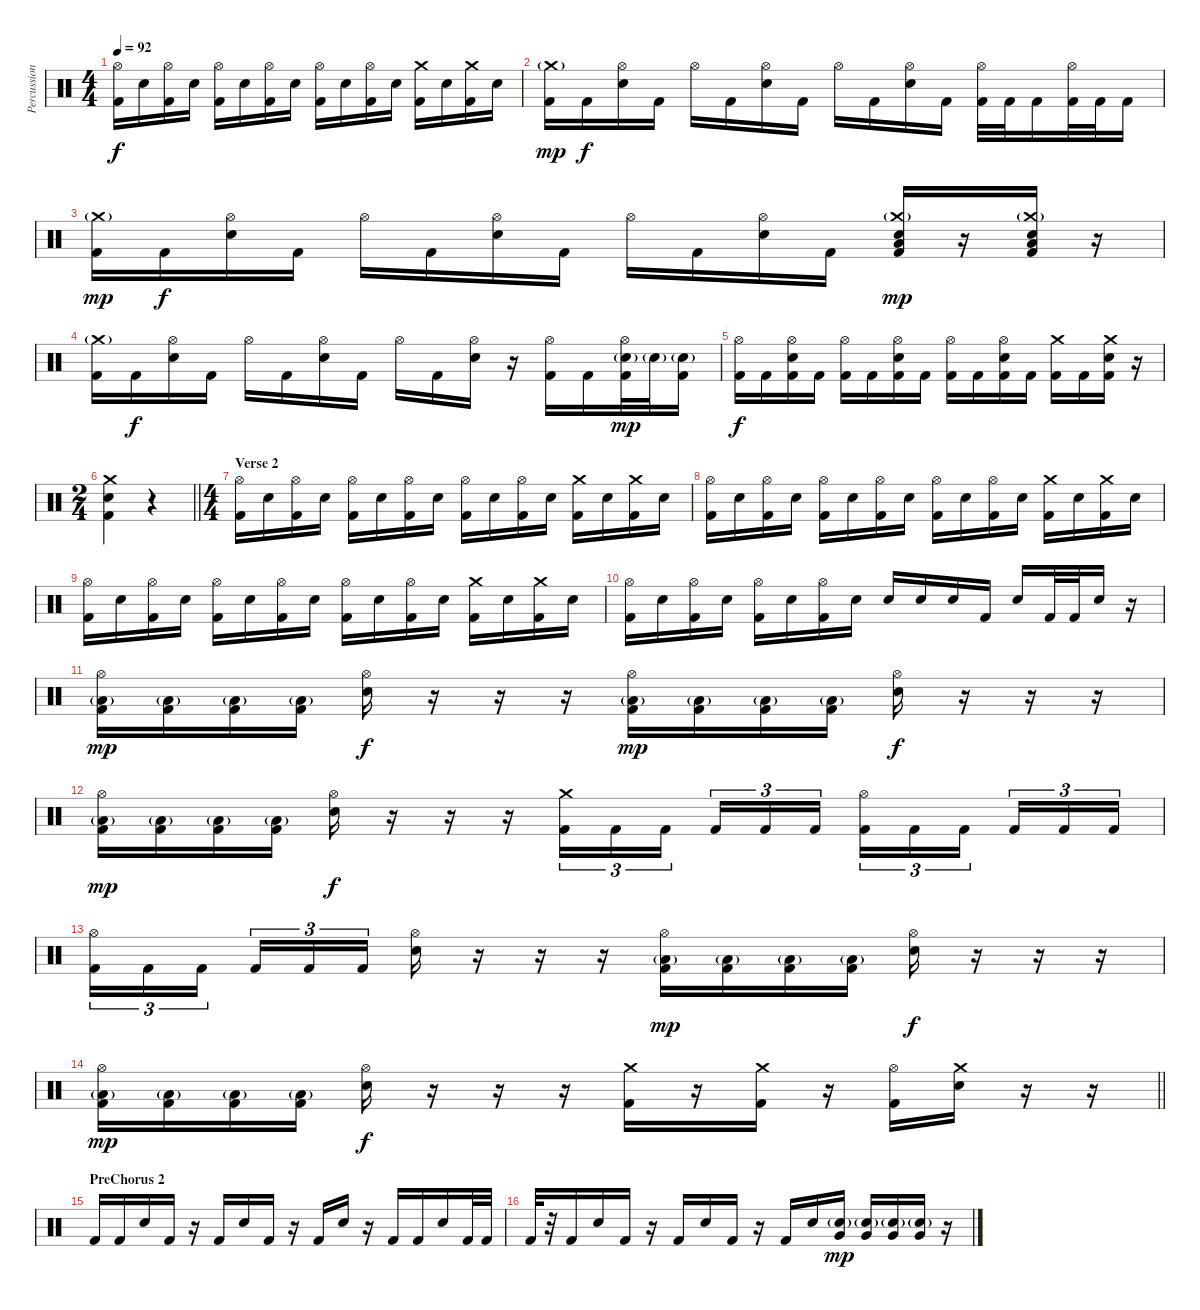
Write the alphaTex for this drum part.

\track ("Percussion" "Percussion") {instrument percussion}
\staff {score}
\articulation defaults
\ts (4 4)
\tempo 92
\clef neutral
\ks c
("Hi-Hat (open)" "Kick (hit) 2").16{dy f} "Electric Snare (hit)".16 ("Hi-Hat (open)" "Kick (hit) 2").16 "Electric Snare (hit)".16 ("Hi-Hat (open)" "Kick (hit) 2").16 "Electric Snare (hit)".16 ("Hi-Hat (open)" "Kick (hit) 2").16 "Electric Snare (hit)".16 ("Hi-Hat (open)" "Kick (hit) 2").16 "Electric Snare (hit)".16 ("Hi-Hat (open)" "Kick (hit) 2").16 "Electric Snare (hit)".16 ("Crash medium (hit)" "Kick (hit) 2").16 "Electric Snare (hit)".16 ("Crash medium (hit)" "Kick (hit) 2").16 "Electric Snare (hit)".16 |
("Crash medium (hit)"{g} "Kick (hit) 2").16{dy mp} "Kick (hit) 2".16{dy f} ("Hi-Hat (open)" "Electric Snare (hit)").16 "Kick (hit) 2".16 "Hi-Hat (open)".16 "Kick (hit) 2".16 ("Hi-Hat (open)" "Electric Snare (hit)").16 "Kick (hit) 2".16 "Hi-Hat (open)".16 "Kick (hit) 2".16 ("Hi-Hat (open)" "Electric Snare (hit)").16 "Kick (hit) 2".16 ("Hi-Hat (open)" "Kick (hit) 2").32 "Kick (hit) 2".32 "Kick (hit) 2".16 ("Hi-Hat (open)" "Kick (hit) 2").32 "Kick (hit) 2".32 "Kick (hit) 2".16 |
("Crash medium (hit)"{g} "Kick (hit) 2").16{dy mp} "Kick (hit) 2".16{dy f} ("Hi-Hat (open)" "Electric Snare (hit)").16 "Kick (hit) 2".16 "Hi-Hat (open)".16 "Kick (hit) 2".16 ("Hi-Hat (open)" "Electric Snare (hit)").16 "Kick (hit) 2".16 "Hi-Hat (open)".16 "Kick (hit) 2".16 ("Hi-Hat (open)" "Electric Snare (hit)").16 "Kick (hit) 2".16 ("Crash medium (hit)"{g} "Low Floor Tom (hit)" "Electric Snare (hit)" "Kick (hit) 2").16{dy mp} r.16 ("Crash medium (hit)"{g} "Low Floor Tom (hit)" "Electric Snare (hit)" "Kick (hit) 2").16 r.16 |
("Crash medium (hit)"{g} "Kick (hit) 2").16 "Kick (hit) 2".16{dy f} ("Hi-Hat (open)" "Electric Snare (hit)").16 "Kick (hit) 2".16 "Hi-Hat (open)".16 "Kick (hit) 2".16 ("Hi-Hat (open)" "Electric Snare (hit)").16 "Kick (hit) 2".16 "Hi-Hat (open)".16 "Kick (hit) 2".16 ("Hi-Hat (open)" "Electric Snare (hit)").16 r.16 ("Hi-Hat (open)" "Kick (hit) 2").16 "Kick (hit) 2".16 ("Hi-Hat (open)" "Electric Snare (hit)"{g} "Kick (hit) 2").32{dy mp} "Electric Snare (hit)"{g}.32 ("Electric Snare (hit)"{g} "Kick (hit) 2").16 |
("Hi-Hat (open)" "Kick (hit) 2").16{dy f} "Kick (hit) 2".16 ("Hi-Hat (open)" "Electric Snare (hit)" "Kick (hit) 2").16 "Kick (hit) 2".16 ("Hi-Hat (open)" "Kick (hit) 2").16 "Kick (hit) 2".16 ("Hi-Hat (open)" "Electric Snare (hit)" "Kick (hit) 2").16 "Kick (hit) 2".16 ("Hi-Hat (open)" "Kick (hit) 2").16 "Kick (hit) 2".16 ("Hi-Hat (open)" "Electric Snare (hit)" "Kick (hit) 2").16 "Kick (hit) 2".16 ("Crash medium (hit)" "Kick (hit) 2").16 "Kick (hit) 2".16 ("Crash medium (hit)" "Electric Snare (hit)" "Kick (hit) 2").16 r.16 |
\ts (2 4)
\barLineRight lightlight
("Crash medium (hit)" "Electric Snare (hit)" "Kick (hit) 2").4 r.4 |
\ts (4 4)
\section ("" "Verse 2")
("Hi-Hat (open)" "Kick (hit) 2").16 "Electric Snare (hit)".16 ("Hi-Hat (open)" "Kick (hit) 2").16 "Electric Snare (hit)".16 ("Hi-Hat (open)" "Kick (hit) 2").16 "Electric Snare (hit)".16 ("Hi-Hat (open)" "Kick (hit) 2").16 "Electric Snare (hit)".16 ("Hi-Hat (open)" "Kick (hit) 2").16 "Electric Snare (hit)".16 ("Hi-Hat (open)" "Kick (hit) 2").16 "Electric Snare (hit)".16 ("Crash medium (hit)" "Kick (hit) 2").16 "Electric Snare (hit)".16 ("Crash medium (hit)" "Kick (hit) 2").16 "Electric Snare (hit)".16 |
("Hi-Hat (open)" "Kick (hit) 2").16 "Electric Snare (hit)".16 ("Hi-Hat (open)" "Kick (hit) 2").16 "Electric Snare (hit)".16 ("Hi-Hat (open)" "Kick (hit) 2").16 "Electric Snare (hit)".16 ("Hi-Hat (open)" "Kick (hit) 2").16 "Electric Snare (hit)".16 ("Hi-Hat (open)" "Kick (hit) 2").16 "Electric Snare (hit)".16 ("Hi-Hat (open)" "Kick (hit) 2").16 "Electric Snare (hit)".16 ("Crash medium (hit)" "Kick (hit) 2").16 "Electric Snare (hit)".16 ("Crash medium (hit)" "Kick (hit) 2").16 "Electric Snare (hit)".16 |
("Hi-Hat (open)" "Kick (hit) 2").16 "Electric Snare (hit)".16 ("Hi-Hat (open)" "Kick (hit) 2").16 "Electric Snare (hit)".16 ("Hi-Hat (open)" "Kick (hit) 2").16 "Electric Snare (hit)".16 ("Hi-Hat (open)" "Kick (hit) 2").16 "Electric Snare (hit)".16 ("Hi-Hat (open)" "Kick (hit) 2").16 "Electric Snare (hit)".16 ("Hi-Hat (open)" "Kick (hit) 2").16 "Electric Snare (hit)".16 ("Crash medium (hit)" "Kick (hit) 2").16 "Electric Snare (hit)".16 ("Crash medium (hit)" "Kick (hit) 2").16 "Electric Snare (hit)".16 |
("Hi-Hat (open)" "Kick (hit) 2").16 "Electric Snare (hit)".16 ("Hi-Hat (open)" "Kick (hit) 2").16 "Electric Snare (hit)".16 ("Hi-Hat (open)" "Kick (hit) 2").16 "Electric Snare (hit)".16 ("Hi-Hat (open)" "Kick (hit) 2").16 "Electric Snare (hit)".16 "Electric Snare (hit)".16 "Electric Snare (hit)".16 "Electric Snare (hit)".16 "Kick (hit) 2".16 "Electric Snare (hit)".16 "Kick (hit) 2".32 "Kick (hit) 2".32 "Electric Snare (hit)".16 r.16 |
("Hi-Hat (open)" "Low Floor Tom (hit)"{g} "Kick (hit) 2").16{dy mp} ("Low Floor Tom (hit)"{g} "Kick (hit) 2").16 ("Low Floor Tom (hit)"{g} "Kick (hit) 2").16 ("Low Floor Tom (hit)"{g} "Kick (hit) 2").16 ("Hi-Hat (open)" "Electric Snare (hit)").16{dy f} r.16 r.16 r.16 ("Hi-Hat (open)" "Low Floor Tom (hit)"{g} "Kick (hit) 2").16{dy mp} ("Low Floor Tom (hit)"{g} "Kick (hit) 2").16 ("Low Floor Tom (hit)"{g} "Kick (hit) 2").16 ("Low Floor Tom (hit)"{g} "Kick (hit) 2").16 ("Hi-Hat (open)" "Electric Snare (hit)").16{dy f} r.16 r.16 r.16 |
("Hi-Hat (open)" "Low Floor Tom (hit)"{g} "Kick (hit) 2").16{dy mp} ("Low Floor Tom (hit)"{g} "Kick (hit) 2").16 ("Low Floor Tom (hit)"{g} "Kick (hit) 2").16 ("Low Floor Tom (hit)"{g} "Kick (hit) 2").16 ("Hi-Hat (open)" "Electric Snare (hit)").16{dy f} r.16 r.16 r.16 ("Crash medium (hit)" "Kick (hit) 2").16{tu (3 2)} "Kick (hit) 2".16{tu (3 2)} "Kick (hit) 2".16{tu (3 2) beam splitsecondary} "Kick (hit) 2".16{tu (3 2)} "Kick (hit) 2".16{tu (3 2)} "Kick (hit) 2".16{tu (3 2)} ("Hi-Hat (open)" "Kick (hit) 2").16{tu (3 2)} "Kick (hit) 2".16{tu (3 2)} "Kick (hit) 2".16{tu (3 2) beam splitsecondary} "Kick (hit) 2".16{tu (3 2)} "Kick (hit) 2".16{tu (3 2)} "Kick (hit) 2".16{tu (3 2)} |
("Hi-Hat (open)" "Kick (hit) 2").16{tu (3 2)} "Kick (hit) 2".16{tu (3 2)} "Kick (hit) 2".16{tu (3 2) beam splitsecondary} "Kick (hit) 2".16{tu (3 2)} "Kick (hit) 2".16{tu (3 2)} "Kick (hit) 2".16{tu (3 2)} ("Hi-Hat (open)" "Electric Snare (hit)").16 r.16 r.16 r.16 ("Hi-Hat (open)" "Low Floor Tom (hit)"{g} "Kick (hit) 2").16{dy mp} ("Low Floor Tom (hit)"{g} "Kick (hit) 2").16 ("Low Floor Tom (hit)"{g} "Kick (hit) 2").16 ("Low Floor Tom (hit)"{g} "Kick (hit) 2").16 ("Hi-Hat (open)" "Electric Snare (hit)").16{dy f} r.16 r.16 r.16 |
\barLineRight lightlight
("Hi-Hat (open)" "Low Floor Tom (hit)"{g} "Kick (hit) 2").16{dy mp} ("Low Floor Tom (hit)"{g} "Kick (hit) 2").16 ("Low Floor Tom (hit)"{g} "Kick (hit) 2").16 ("Low Floor Tom (hit)"{g} "Kick (hit) 2").16 ("Hi-Hat (open)" "Electric Snare (hit)").16{dy f} r.16 r.16 r.16 ("Crash medium (hit)" "Kick (hit) 2").16 r.16 ("Crash medium (hit)" "Kick (hit) 2").16 r.16 ("Hi-Hat (open)" "Kick (hit) 2").16 ("Crash medium (hit)" "Electric Snare (hit)").16 r.16 r.16 |
\section ("" "PreChorus 2")
"Kick (hit) 2".16 "Kick (hit) 2".16 "Electric Snare (hit)".16 "Kick (hit) 2".16 r.16 "Kick (hit) 2".16 "Electric Snare (hit)".16 "Kick (hit) 2".16 r.16 "Kick (hit) 2".16 "Electric Snare (hit)".16 r.16 "Kick (hit) 2".16 "Kick (hit) 2".16 "Electric Snare (hit)".16 "Kick (hit) 2".32 "Kick (hit) 2".32 |
"Kick (hit) 2".32 r.32 "Kick (hit) 2".16 "Electric Snare (hit)".16 "Kick (hit) 2".16 r.16 "Kick (hit) 2".16 "Electric Snare (hit)".16 "Kick (hit) 2".16 r.16 "Kick (hit) 2".16 "Electric Snare (hit)".16 ("Very Low Tom (hit)" "Electric Snare (hit)"{g}).16{dy mp} ("Very Low Tom (hit)" "Electric Snare (hit)"{g}).16 ("Very Low Tom (hit)" "Electric Snare (hit)"{g}).16 ("Very Low Tom (hit)" "Electric Snare (hit)"{g}).16 r.16
